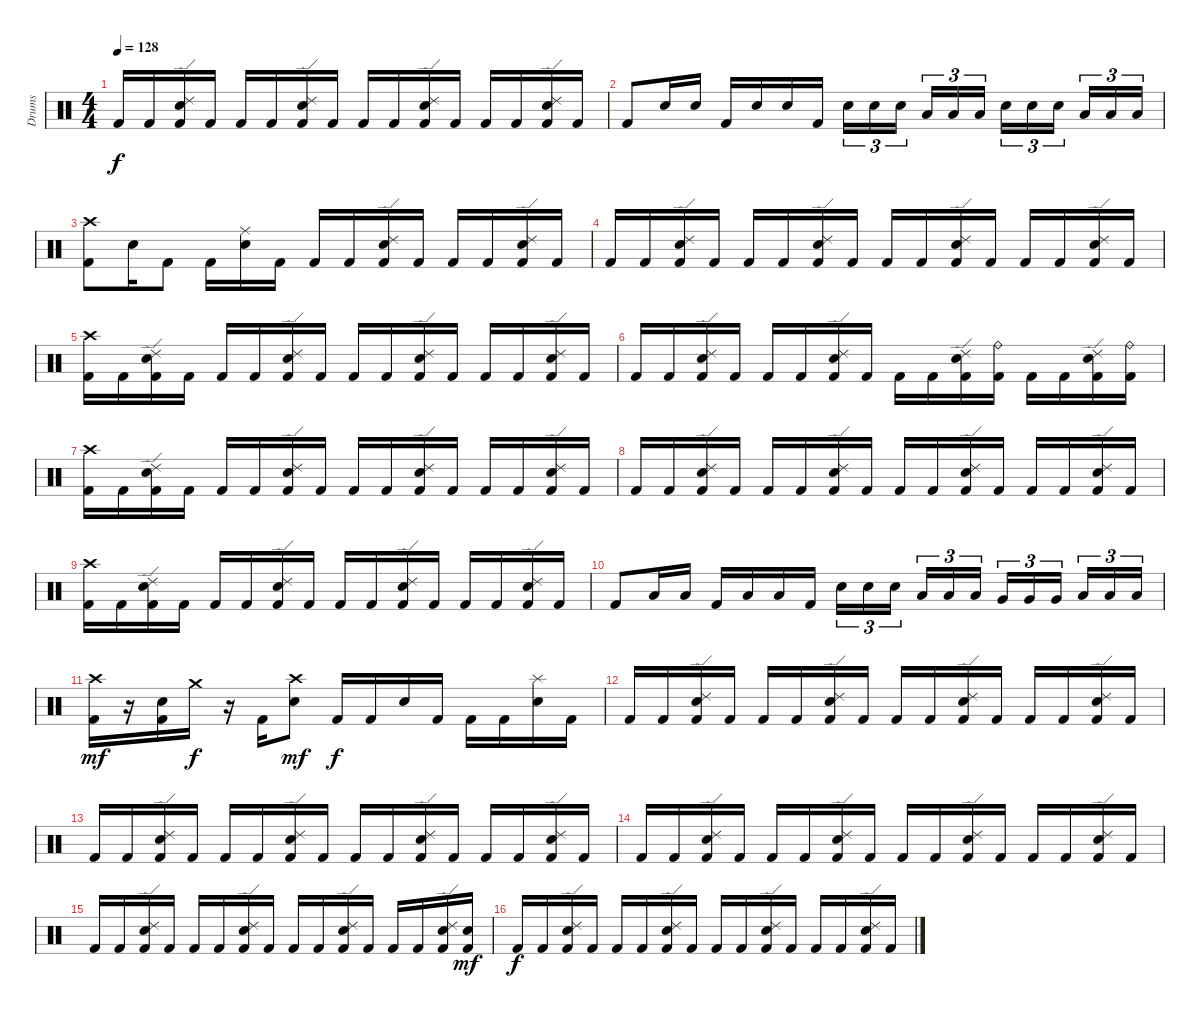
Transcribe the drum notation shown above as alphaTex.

\track ("Drums" "Drums") {instrument percussion}
\staff {score}
\articulation defaults
\ts (4 4)
\tempo 128
\clef neutral
\ks c "Kick (hit) 2".16{dy f} "Kick (hit) 2".16
("Ride (edge) 2" "Snare (hit) 2" "Kick (hit) 2").16 "Kick (hit) 2".16 "Kick (hit) 2".16 "Kick (hit) 2".16 ("Ride (edge) 2" "Snare (hit) 2" "Kick (hit) 2").16 "Kick (hit) 2".16 "Kick (hit) 2".16 "Kick (hit) 2".16 ("Ride (edge) 2" "Snare (hit) 2" "Kick (hit) 2").16 "Kick (hit) 2".16 "Kick (hit) 2".16 "Kick (hit) 2".16 ("Ride (edge) 2" "Snare (hit) 2" "Kick (hit) 2").16 "Kick (hit) 2".16 |
"Kick (hit) 2".8 "Snare (hit) 2".16 "Snare (hit) 2".16 "Kick (hit) 2".16 "Snare (hit) 2".16 "Snare (hit) 2".16 "Kick (hit) 2".16 "Snare (hit) 2".16{tu (3 2)} "Snare (hit) 2".16{tu (3 2)} "Snare (hit) 2".16{tu (3 2) beam splitsecondary} "Low Tom (hit)".16{tu (3 2)} "Low Tom (hit)".16{tu (3 2)} "Low Tom (hit)".16{tu (3 2)} "Snare (hit) 2".16{tu (3 2)} "Snare (hit) 2".16{tu (3 2)} "Snare (hit) 2".16{tu (3 2) beam splitsecondary} "Low Tom (hit)".16{tu (3 2)} "Low Tom (hit)".16{tu (3 2)} "Low Tom (hit)".16{tu (3 2)} |
("Crash high (hit)" "Kick (hit) 2").8 "Snare (hit) 2".16 "Kick (hit) 2".8 "Kick (hit) 2".16 ("Ride (middle)" "Snare (hit) 2").16 "Kick (hit) 2".16 "Kick (hit) 2".16 "Kick (hit) 2".16 ("Ride (edge) 2" "Snare (hit) 2" "Kick (hit) 2").16 "Kick (hit) 2".16 "Kick (hit) 2".16 "Kick (hit) 2".16 ("Ride (edge) 2" "Snare (hit) 2" "Kick (hit) 2").16 "Kick (hit) 2".16 |
"Kick (hit) 2".16 "Kick (hit) 2".16 ("Ride (edge) 2" "Snare (hit) 2" "Kick (hit) 2").16 "Kick (hit) 2".16 "Kick (hit) 2".16 "Kick (hit) 2".16 ("Ride (edge) 2" "Snare (hit) 2" "Kick (hit) 2").16 "Kick (hit) 2".16 "Kick (hit) 2".16 "Kick (hit) 2".16 ("Ride (edge) 2" "Snare (hit) 2" "Kick (hit) 2").16 "Kick (hit) 2".16 "Kick (hit) 2".16 "Kick (hit) 2".16 ("Ride (edge) 2" "Snare (hit) 2" "Kick (hit) 2").16 "Kick (hit) 2".16 |
("Crash high (hit)" "Kick (hit) 2").16 "Kick (hit) 2".16 ("Ride (edge) 2" "Snare (hit) 2" "Kick (hit) 2").16 "Kick (hit) 2".16 "Kick (hit) 2".16 "Kick (hit) 2".16 ("Ride (edge) 2" "Snare (hit) 2" "Kick (hit) 2").16 "Kick (hit) 2".16 "Kick (hit) 2".16 "Kick (hit) 2".16 ("Ride (edge) 2" "Snare (hit) 2" "Kick (hit) 2").16 "Kick (hit) 2".16 "Kick (hit) 2".16 "Kick (hit) 2".16 ("Ride (edge) 2" "Snare (hit) 2" "Kick (hit) 2").16 "Kick (hit) 2".16 |
"Kick (hit) 2".16 "Kick (hit) 2".16 ("Ride (edge) 2" "Snare (hit) 2" "Kick (hit) 2").16 "Kick (hit) 2".16 "Kick (hit) 2".16 "Kick (hit) 2".16 ("Ride (edge) 2" "Snare (hit) 2" "Kick (hit) 2").16 "Kick (hit) 2".16 "Kick (hit) 2".16 "Kick (hit) 2".16 ("Ride (edge) 2" "Snare (hit) 2" "Kick (hit) 2").16 ("Ride (bell)" "Kick (hit) 2").16 "Kick (hit) 2".16 "Kick (hit) 2".16 ("Ride (edge) 2" "Snare (hit) 2" "Kick (hit) 2").16 ("Ride (bell)" "Kick (hit) 2").16 |
("Crash high (hit)" "Kick (hit) 2").16 "Kick (hit) 2".16 ("Ride (edge) 2" "Snare (hit) 2" "Kick (hit) 2").16 "Kick (hit) 2".16 "Kick (hit) 2".16 "Kick (hit) 2".16 ("Ride (edge) 2" "Snare (hit) 2" "Kick (hit) 2").16 "Kick (hit) 2".16 "Kick (hit) 2".16 "Kick (hit) 2".16 ("Ride (edge) 2" "Snare (hit) 2" "Kick (hit) 2").16 "Kick (hit) 2".16 "Kick (hit) 2".16 "Kick (hit) 2".16 ("Ride (edge) 2" "Snare (hit) 2" "Kick (hit) 2").16 "Kick (hit) 2".16 |
"Kick (hit) 2".16 "Kick (hit) 2".16 ("Ride (edge) 2" "Snare (hit) 2" "Kick (hit) 2").16 "Kick (hit) 2".16 "Kick (hit) 2".16 "Kick (hit) 2".16 ("Ride (edge) 2" "Snare (hit) 2" "Kick (hit) 2").16 "Kick (hit) 2".16 "Kick (hit) 2".16 "Kick (hit) 2".16 ("Ride (edge) 2" "Snare (hit) 2" "Kick (hit) 2").16 "Kick (hit) 2".16 "Kick (hit) 2".16 "Kick (hit) 2".16 ("Ride (edge) 2" "Snare (hit) 2" "Kick (hit) 2").16 "Kick (hit) 2".16 |
("Crash high (hit)" "Kick (hit) 2").16 "Kick (hit) 2".16 ("Ride (edge) 2" "Snare (hit) 2" "Kick (hit) 2").16 "Kick (hit) 2".16 "Kick (hit) 2".16 "Kick (hit) 2".16 ("Ride (edge) 2" "Snare (hit) 2" "Kick (hit) 2").16 "Kick (hit) 2".16 "Kick (hit) 2".16 "Kick (hit) 2".16 ("Ride (edge) 2" "Snare (hit) 2" "Kick (hit) 2").16 "Kick (hit) 2".16 "Kick (hit) 2".16 "Kick (hit) 2".16 ("Ride (edge) 2" "Snare (hit) 2" "Kick (hit) 2").16 "Kick (hit) 2".16 |
"Kick (hit) 2".8 "Low Tom (hit)".16 "Low Tom (hit)".16 "Kick (hit) 2".16 "Low Tom (hit)".16 "Low Tom (hit)".16 "Kick (hit) 2".16 "Snare (hit) 2".16{tu (3 2)} "Snare (hit) 2".16{tu (3 2)} "Snare (hit) 2".16{tu (3 2) beam splitsecondary} "Low Tom (hit)".16{tu (3 2)} "Low Tom (hit)".16{tu (3 2)} "Low Tom (hit)".16{tu (3 2)} "Very Low Tom (hit)".16{tu (3 2)} "Very Low Tom (hit)".16{tu (3 2)} "Very Low Tom (hit)".16{tu (3 2) beam splitsecondary} "Low Floor Tom (hit)".16{tu (3 2)} "Low Floor Tom (hit)".16{tu (3 2)} "Low Floor Tom (hit)".16{tu (3 2)} |
("Crash high (hit)" "Kick (hit) 2").16{dy mf} r.16 ("Snare (hit) 2" "Kick (hit) 2").16 "Crash medium (hit)".16{dy f} r.16 "Kick (hit) 2".16 ("Crash high (hit)" "Snare (hit) 2").8{dy mf} "Kick (hit) 2".16{dy f} "Kick (hit) 2".16 "Snare (hit) 2".16 "Kick (hit) 2".16 "Kick (hit) 2".16 "Kick (hit) 2".16 ("Splash (hit)" "Snare (hit) 2").16 "Kick (hit) 2".16 |
"Kick (hit) 2".16 "Kick (hit) 2".16 ("Ride (edge) 2" "Snare (hit) 2" "Kick (hit) 2").16 "Kick (hit) 2".16 "Kick (hit) 2".16 "Kick (hit) 2".16 ("Ride (edge) 2" "Snare (hit) 2" "Kick (hit) 2").16 "Kick (hit) 2".16 "Kick (hit) 2".16 "Kick (hit) 2".16 ("Ride (edge) 2" "Snare (hit) 2" "Kick (hit) 2").16 "Kick (hit) 2".16 "Kick (hit) 2".16 "Kick (hit) 2".16 ("Ride (edge) 2" "Snare (hit) 2" "Kick (hit) 2").16 "Kick (hit) 2".16 |
"Kick (hit) 2".16 "Kick (hit) 2".16 ("Ride (edge) 2" "Snare (hit) 2" "Kick (hit) 2").16 "Kick (hit) 2".16 "Kick (hit) 2".16 "Kick (hit) 2".16 ("Ride (edge) 2" "Snare (hit) 2" "Kick (hit) 2").16 "Kick (hit) 2".16 "Kick (hit) 2".16 "Kick (hit) 2".16 ("Ride (edge) 2" "Snare (hit) 2" "Kick (hit) 2").16 "Kick (hit) 2".16 "Kick (hit) 2".16 "Kick (hit) 2".16 ("Ride (edge) 2" "Snare (hit) 2" "Kick (hit) 2").16 "Kick (hit) 2".16 |
"Kick (hit) 2".16 "Kick (hit) 2".16 ("Ride (edge) 2" "Snare (hit) 2" "Kick (hit) 2").16 "Kick (hit) 2".16 "Kick (hit) 2".16 "Kick (hit) 2".16 ("Ride (edge) 2" "Snare (hit) 2" "Kick (hit) 2").16 "Kick (hit) 2".16 "Kick (hit) 2".16 "Kick (hit) 2".16 ("Ride (edge) 2" "Snare (hit) 2" "Kick (hit) 2").16 "Kick (hit) 2".16 "Kick (hit) 2".16 "Kick (hit) 2".16 ("Ride (edge) 2" "Snare (hit) 2" "Kick (hit) 2").16 "Kick (hit) 2".16 |
"Kick (hit) 2".16 "Kick (hit) 2".16 ("Ride (edge) 2" "Snare (hit) 2" "Kick (hit) 2").16 "Kick (hit) 2".16 "Kick (hit) 2".16 "Kick (hit) 2".16 ("Ride (edge) 2" "Snare (hit) 2" "Kick (hit) 2").16 "Kick (hit) 2".16 "Kick (hit) 2".16 "Kick (hit) 2".16 ("Ride (edge) 2" "Snare (hit) 2" "Kick (hit) 2").16 "Kick (hit) 2".16 "Kick (hit) 2".16 "Kick (hit) 2".16 ("Ride (edge) 2" "Snare (hit) 2" "Kick (hit) 2").16 ("Snare (hit) 2" "Kick (hit) 2").16{dy mf} |
"Kick (hit) 2".16{dy f} "Kick (hit) 2".16 ("Ride (edge) 2" "Snare (hit) 2" "Kick (hit) 2").16 "Kick (hit) 2".16 "Kick (hit) 2".16 "Kick (hit) 2".16 ("Ride (edge) 2" "Snare (hit) 2" "Kick (hit) 2").16 "Kick (hit) 2".16 "Kick (hit) 2".16 "Kick (hit) 2".16 ("Ride (edge) 2" "Snare (hit) 2" "Kick (hit) 2").16 "Kick (hit) 2".16 "Kick (hit) 2".16 "Kick (hit) 2".16 ("Ride (edge) 2" "Snare (hit) 2" "Kick (hit) 2").16 "Kick (hit) 2".16
